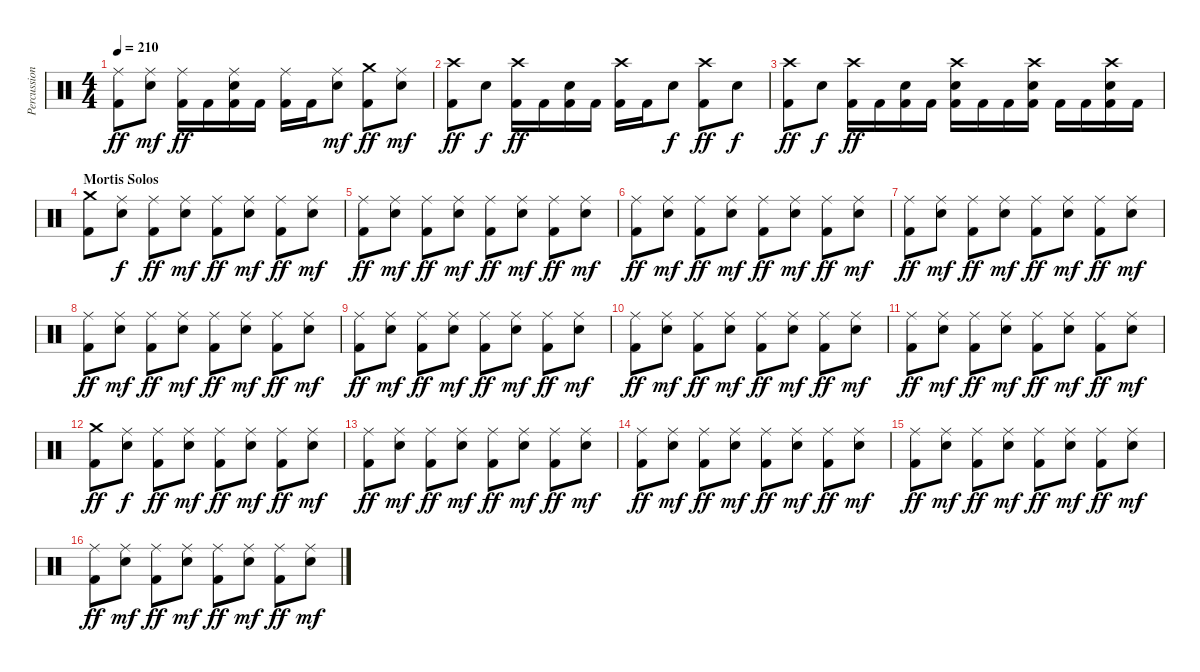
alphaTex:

\track ("Percussion" "Percussion") {instrument percussion}
\staff {score}
\articulation defaults
\ts (4 4)
\tempo 210
\clef neutral
\ks c
("Ride (middle)" "Kick (hit) 2").8{dy ff} ("Ride (middle)" "Snare (hit) 2").8{dy mf} ("Ride (middle)" "Kick (hit) 2").16{dy ff} "Kick (hit) 2".16 ("Ride (middle)" "Snare (hit) 2" "Kick (hit) 2").16 "Kick (hit) 2".16 ("Ride (middle)" "Kick (hit) 2").16 "Kick (hit) 2".16 ("Ride (middle)" "Snare (hit) 2").8{dy mf} ("Crash medium (hit)" "Kick (hit) 2").8{dy ff} ("Ride (middle)" "Snare (hit) 2").8{dy mf} |
("Crash high (hit)" "Kick (hit) 2").8{dy ff} "Snare (hit) 2".8{dy f} ("Crash high (hit)" "Kick (hit) 2").16{dy ff} "Kick (hit) 2".16 ("Snare (hit) 2" "Kick (hit) 2").16 "Kick (hit) 2".16 ("Crash high (hit)" "Kick (hit) 2").16 "Kick (hit) 2".16 "Snare (hit) 2".8{dy f} ("Crash high (hit)" "Kick (hit) 2").8{dy ff} "Snare (hit) 2".8{dy f} |
("Crash high (hit)" "Kick (hit) 2").8{dy ff} "Snare (hit) 2".8{dy f} ("Crash high (hit)" "Kick (hit) 2").16{dy ff} "Kick (hit) 2".16 ("Snare (hit) 2" "Kick (hit) 2").16 "Kick (hit) 2".16 ("Crash high (hit)" "Snare (hit) 2" "Kick (hit) 2").16 "Kick (hit) 2".16 "Kick (hit) 2".16 ("Crash high (hit)" "Snare (hit) 2" "Kick (hit) 2").16 "Kick (hit) 2".16 "Kick (hit) 2".16 ("Crash high (hit)" "Snare (hit) 2" "Kick (hit) 2").16 "Kick (hit) 2".16 |
\section ("" "Mortis Solos")
("Crash medium (hit)" "Kick (hit) 2").8 ("Ride (middle)" "Snare (hit) 2").8{dy f} ("Ride (middle)" "Kick (hit) 2").8{dy ff} ("Ride (middle)" "Snare (hit) 2").8{dy mf} ("Ride (middle)" "Kick (hit) 2").8{dy ff} ("Ride (middle)" "Snare (hit) 2").8{dy mf} ("Ride (middle)" "Kick (hit) 2").8{dy ff} ("Ride (middle)" "Snare (hit) 2").8{dy mf} |
("Ride (middle)" "Kick (hit) 2").8{dy ff} ("Ride (middle)" "Snare (hit) 2").8{dy mf} ("Ride (middle)" "Kick (hit) 2").8{dy ff} ("Ride (middle)" "Snare (hit) 2").8{dy mf} ("Ride (middle)" "Kick (hit) 2").8{dy ff} ("Ride (middle)" "Snare (hit) 2").8{dy mf} ("Ride (middle)" "Kick (hit) 2").8{dy ff} ("Ride (middle)" "Snare (hit) 2").8{dy mf} |
("Ride (middle)" "Kick (hit) 2").8{dy ff} ("Ride (middle)" "Snare (hit) 2").8{dy mf} ("Ride (middle)" "Kick (hit) 2").8{dy ff} ("Ride (middle)" "Snare (hit) 2").8{dy mf} ("Ride (middle)" "Kick (hit) 2").8{dy ff} ("Ride (middle)" "Snare (hit) 2").8{dy mf} ("Ride (middle)" "Kick (hit) 2").8{dy ff} ("Ride (middle)" "Snare (hit) 2").8{dy mf} |
("Ride (middle)" "Kick (hit) 2").8{dy ff} ("Ride (middle)" "Snare (hit) 2").8{dy mf} ("Ride (middle)" "Kick (hit) 2").8{dy ff} ("Ride (middle)" "Snare (hit) 2").8{dy mf} ("Ride (middle)" "Kick (hit) 2").8{dy ff} ("Ride (middle)" "Snare (hit) 2").8{dy mf} ("Ride (middle)" "Kick (hit) 2").8{dy ff} ("Ride (middle)" "Snare (hit) 2").8{dy mf} |
("Ride (middle)" "Kick (hit) 2").8{dy ff} ("Ride (middle)" "Snare (hit) 2").8{dy mf} ("Ride (middle)" "Kick (hit) 2").8{dy ff} ("Ride (middle)" "Snare (hit) 2").8{dy mf} ("Ride (middle)" "Kick (hit) 2").8{dy ff} ("Ride (middle)" "Snare (hit) 2").8{dy mf} ("Ride (middle)" "Kick (hit) 2").8{dy ff} ("Ride (middle)" "Snare (hit) 2").8{dy mf} |
("Ride (middle)" "Kick (hit) 2").8{dy ff} ("Ride (middle)" "Snare (hit) 2").8{dy mf} ("Ride (middle)" "Kick (hit) 2").8{dy ff} ("Ride (middle)" "Snare (hit) 2").8{dy mf} ("Ride (middle)" "Kick (hit) 2").8{dy ff} ("Ride (middle)" "Snare (hit) 2").8{dy mf} ("Ride (middle)" "Kick (hit) 2").8{dy ff} ("Ride (middle)" "Snare (hit) 2").8{dy mf} |
("Ride (middle)" "Kick (hit) 2").8{dy ff} ("Ride (middle)" "Snare (hit) 2").8{dy mf} ("Ride (middle)" "Kick (hit) 2").8{dy ff} ("Ride (middle)" "Snare (hit) 2").8{dy mf} ("Ride (middle)" "Kick (hit) 2").8{dy ff} ("Ride (middle)" "Snare (hit) 2").8{dy mf} ("Ride (middle)" "Kick (hit) 2").8{dy ff} ("Ride (middle)" "Snare (hit) 2").8{dy mf} |
("Ride (middle)" "Kick (hit) 2").8{dy ff} ("Ride (middle)" "Snare (hit) 2").8{dy mf} ("Ride (middle)" "Kick (hit) 2").8{dy ff} ("Ride (middle)" "Snare (hit) 2").8{dy mf} ("Ride (middle)" "Kick (hit) 2").8{dy ff} ("Ride (middle)" "Snare (hit) 2").8{dy mf} ("Ride (middle)" "Kick (hit) 2").8{dy ff} ("Ride (middle)" "Snare (hit) 2").8{dy mf} |
("Crash medium (hit)" "Kick (hit) 2").8{dy ff} ("Ride (middle)" "Snare (hit) 2").8{dy f} ("Ride (middle)" "Kick (hit) 2").8{dy ff} ("Ride (middle)" "Snare (hit) 2").8{dy mf} ("Ride (middle)" "Kick (hit) 2").8{dy ff} ("Ride (middle)" "Snare (hit) 2").8{dy mf} ("Ride (middle)" "Kick (hit) 2").8{dy ff} ("Ride (middle)" "Snare (hit) 2").8{dy mf} |
("Ride (middle)" "Kick (hit) 2").8{dy ff} ("Ride (middle)" "Snare (hit) 2").8{dy mf} ("Ride (middle)" "Kick (hit) 2").8{dy ff} ("Ride (middle)" "Snare (hit) 2").8{dy mf} ("Ride (middle)" "Kick (hit) 2").8{dy ff} ("Ride (middle)" "Snare (hit) 2").8{dy mf} ("Ride (middle)" "Kick (hit) 2").8{dy ff} ("Ride (middle)" "Snare (hit) 2").8{dy mf} |
("Ride (middle)" "Kick (hit) 2").8{dy ff} ("Ride (middle)" "Snare (hit) 2").8{dy mf} ("Ride (middle)" "Kick (hit) 2").8{dy ff} ("Ride (middle)" "Snare (hit) 2").8{dy mf} ("Ride (middle)" "Kick (hit) 2").8{dy ff} ("Ride (middle)" "Snare (hit) 2").8{dy mf} ("Ride (middle)" "Kick (hit) 2").8{dy ff} ("Ride (middle)" "Snare (hit) 2").8{dy mf} |
("Ride (middle)" "Kick (hit) 2").8{dy ff} ("Ride (middle)" "Snare (hit) 2").8{dy mf} ("Ride (middle)" "Kick (hit) 2").8{dy ff} ("Ride (middle)" "Snare (hit) 2").8{dy mf} ("Ride (middle)" "Kick (hit) 2").8{dy ff} ("Ride (middle)" "Snare (hit) 2").8{dy mf} ("Ride (middle)" "Kick (hit) 2").8{dy ff} ("Ride (middle)" "Snare (hit) 2").8{dy mf} |
("Ride (middle)" "Kick (hit) 2").8{dy ff} ("Ride (middle)" "Snare (hit) 2").8{dy mf} ("Ride (middle)" "Kick (hit) 2").8{dy ff} ("Ride (middle)" "Snare (hit) 2").8{dy mf} ("Ride (middle)" "Kick (hit) 2").8{dy ff} ("Ride (middle)" "Snare (hit) 2").8{dy mf} ("Ride (middle)" "Kick (hit) 2").8{dy ff} ("Ride (middle)" "Snare (hit) 2").8{dy mf}
